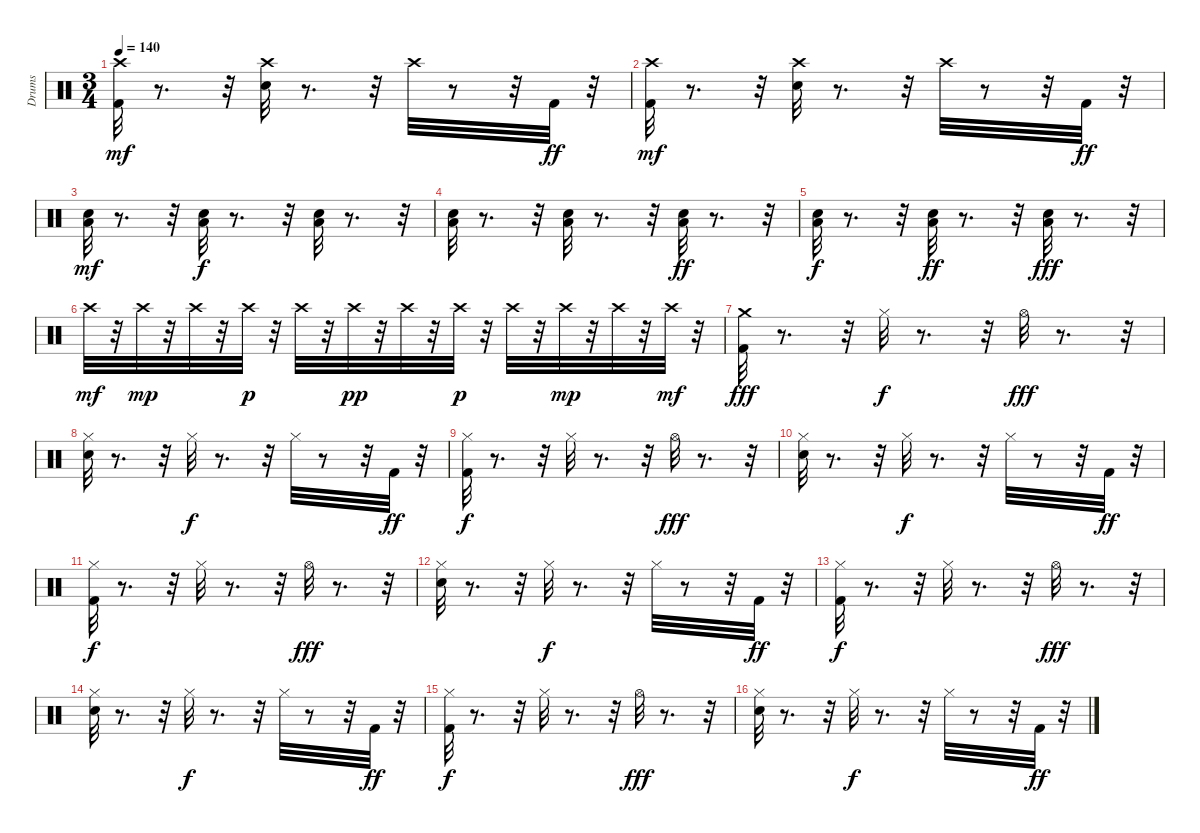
\track ("Drums" "Drums") {instrument percussion}
\staff {score}
\articulation defaults
\ts (3 4)
\tempo 140
\clef neutral
\ks c
("Kick (hit) 2" "Crash high (hit)").32{dy mf} r.8{d} r.32 ("Snare (hit) 2" "Crash high (hit)").32 r.8{d} r.32 "Crash high (hit)".32 r.8 r.32 "Kick (hit) 2".32{dy ff} r.32 |
("Kick (hit) 2" "Crash high (hit)").32{dy mf} r.8{d} r.32 ("Snare (hit) 2" "Crash high (hit)").32 r.8{d} r.32 "Crash high (hit)".32 r.8 r.32 "Kick (hit) 2".32{dy ff} r.32 |
("Snare (hit) 2" "Low Floor Tom (hit)").32{dy mf} r.8{d} r.32 ("Snare (hit) 2" "Low Floor Tom (hit)").32{dy f} r.8{d} r.32 ("Snare (hit) 2" "Low Floor Tom (hit)").32 r.8{d} r.32 |
("Snare (hit) 2" "Low Floor Tom (hit)").32 r.8{d} r.32 ("Snare (hit) 2" "Low Floor Tom (hit)").32 r.8{d} r.32 ("Snare (hit) 2" "Low Floor Tom (hit)").32{dy ff} r.8{d} r.32 |
("Snare (hit) 2" "Low Floor Tom (hit)").32{dy f} r.8{d} r.32 ("Snare (hit) 2" "Low Floor Tom (hit)").32{dy ff} r.8{d} r.32 ("Snare (hit) 2" "Low Floor Tom (hit)").32{dy fff} r.8{d} r.32 |
"Crash high (hit)".32{dy mf} r.32 "Crash high (hit)".32{dy mp} r.32 "Crash high (hit)".32 r.32 "Crash high (hit)".32{dy p} r.32 "Crash high (hit)".32 r.32 "Crash high (hit)".32{dy pp} r.32 "Crash high (hit)".32 r.32 "Crash high (hit)".32{dy p} r.32 "Crash high (hit)".32 r.32 "Crash high (hit)".32{dy mp} r.32 "Crash high (hit)".32 r.32 "Crash high (hit)".32{dy mf} r.32 |
("Kick (hit) 2" "Crash medium (hit)").32{dy fff} r.8{d} r.32 "Hi-Hat (closed)".32{dy f} r.8{d} r.32 "Hi-Hat (open)".32{dy fff} r.8{d} r.32 |
("Snare (hit) 2" "Hi-Hat (closed)").32 r.8{d} r.32 "Hi-Hat (closed)".32{dy f} r.8{d} r.32 "Hi-Hat (closed)".32 r.8 r.32 "Kick (hit) 2".32{dy ff} r.32 |
("Hi-Hat (closed)" "Kick (hit) 2").32{dy f} r.8{d} r.32 "Hi-Hat (closed)".32 r.8{d} r.32 "Hi-Hat (open)".32{dy fff} r.8{d} r.32 |
("Snare (hit) 2" "Hi-Hat (closed)").32 r.8{d} r.32 "Hi-Hat (closed)".32{dy f} r.8{d} r.32 "Hi-Hat (closed)".32 r.8 r.32 "Kick (hit) 2".32{dy ff} r.32 |
("Hi-Hat (closed)" "Kick (hit) 2").32{dy f} r.8{d} r.32 "Hi-Hat (closed)".32 r.8{d} r.32 "Hi-Hat (open)".32{dy fff} r.8{d} r.32 |
("Snare (hit) 2" "Hi-Hat (closed)").32 r.8{d} r.32 "Hi-Hat (closed)".32{dy f} r.8{d} r.32 "Hi-Hat (closed)".32 r.8 r.32 "Kick (hit) 2".32{dy ff} r.32 |
("Hi-Hat (closed)" "Kick (hit) 2").32{dy f} r.8{d} r.32 "Hi-Hat (closed)".32 r.8{d} r.32 "Hi-Hat (open)".32{dy fff} r.8{d} r.32 |
("Snare (hit) 2" "Hi-Hat (closed)").32 r.8{d} r.32 "Hi-Hat (closed)".32{dy f} r.8{d} r.32 "Hi-Hat (closed)".32 r.8 r.32 "Kick (hit) 2".32{dy ff} r.32 |
("Hi-Hat (closed)" "Kick (hit) 2").32{dy f} r.8{d} r.32 "Hi-Hat (closed)".32 r.8{d} r.32 "Hi-Hat (open)".32{dy fff} r.8{d} r.32 |
("Snare (hit) 2" "Hi-Hat (closed)").32 r.8{d} r.32 "Hi-Hat (closed)".32{dy f} r.8{d} r.32 "Hi-Hat (closed)".32 r.8 r.32 "Kick (hit) 2".32{dy ff} r.32
